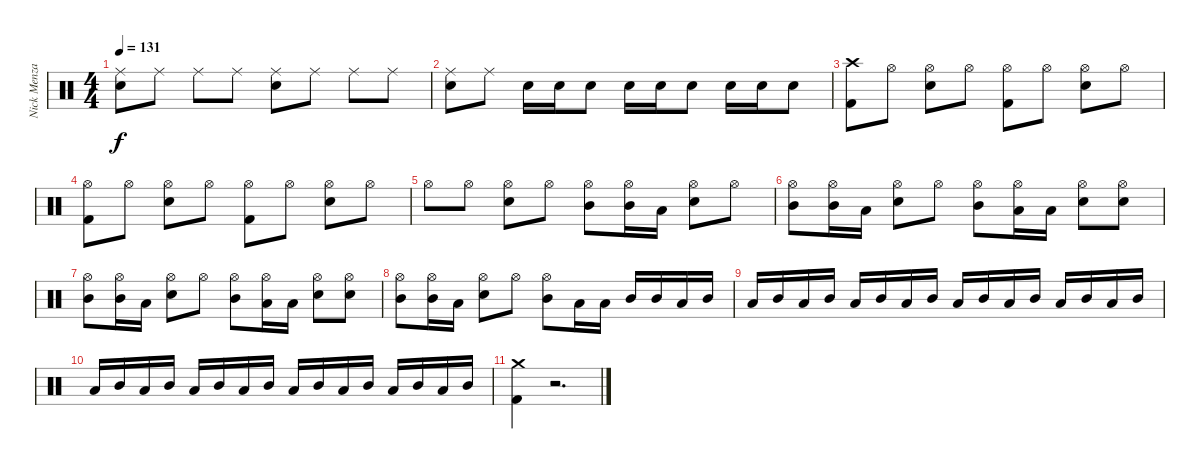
\track ("Nick Menza" "Nick Menza") {instrument percussion}
\staff {score}
\articulation defaults
\ts (4 4)
\tempo 131
\clef neutral
\ks c
("Ride (middle)" "Snare (hit) 2").8{dy f} "Ride (middle)".8 "Ride (middle)".8 "Ride (middle)".8 ("Ride (middle)" "Snare (hit) 2").8 "Ride (middle)".8 "Ride (middle)".8 "Ride (middle)".8 |
("Ride (middle)" "Snare (hit) 2").8 "Ride (middle)".8 "Snare (hit) 2".16 "Snare (hit) 2".16 "Snare (hit) 2".8 "Snare (hit) 2".16 "Snare (hit) 2".16 "Snare (hit) 2".8 "Snare (hit) 2".16 "Snare (hit) 2".16 "Snare (hit) 2".8 |
("Crash high (hit)" "Kick (hit) 2").8 "Hi-Hat (open)".8 ("Hi-Hat (open)" "Snare (hit) 2").8 "Hi-Hat (open)".8 ("Hi-Hat (open)" "Kick (hit) 2").8 "Hi-Hat (open)".8 ("Hi-Hat (open)" "Snare (hit) 2").8 "Hi-Hat (open)".8 |
("Hi-Hat (open)" "Kick (hit) 2").8 "Hi-Hat (open)".8 ("Hi-Hat (open)" "Snare (hit) 2").8 "Hi-Hat (open)".8 ("Hi-Hat (open)" "Kick (hit) 2").8 "Hi-Hat (open)".8 ("Hi-Hat (open)" "Snare (hit) 2").8 "Hi-Hat (open)".8 |
"Hi-Hat (open)".8 "Hi-Hat (open)".8 ("Hi-Hat (open)" "Snare (hit) 2").8 "Hi-Hat (open)".8 ("Hi-Hat (open)" "Mid Tom (hit)").8 ("Hi-Hat (open)" "Mid Tom (hit)").16 "Low Tom (hit)".16 ("Hi-Hat (open)" "Snare (hit) 2").8 "Hi-Hat (open)".8 |
("Hi-Hat (open)" "Mid Tom (hit)").8 ("Hi-Hat (open)" "Mid Tom (hit)").16 "Low Tom (hit)".16 ("Hi-Hat (open)" "Snare (hit) 2").8 "Hi-Hat (open)".8 ("Hi-Hat (open)" "Mid Tom (hit)").8 ("Hi-Hat (open)" "Low Tom (hit)").16 "Low Tom (hit)".16 ("Hi-Hat (open)" "Snare (hit) 2").8 ("Hi-Hat (open)" "Snare (hit) 2").8 |
("Hi-Hat (open)" "Mid Tom (hit)").8 ("Hi-Hat (open)" "Mid Tom (hit)").16 "Low Tom (hit)".16 ("Hi-Hat (open)" "Snare (hit) 2").8 "Hi-Hat (open)".8 ("Hi-Hat (open)" "Mid Tom (hit)").8 ("Hi-Hat (open)" "Low Tom (hit)").16 "Low Tom (hit)".16 ("Hi-Hat (open)" "Snare (hit) 2").8 ("Hi-Hat (open)" "Snare (hit) 2").8 |
("Hi-Hat (open)" "Mid Tom (hit)").8 ("Hi-Hat (open)" "Mid Tom (hit)").16 "Low Tom (hit)".16 ("Hi-Hat (open)" "Snare (hit) 2").8 "Hi-Hat (open)".8 ("Hi-Hat (open)" "Mid Tom (hit)").8 "Low Tom (hit)".16 "Low Tom (hit)".16 "Mid Tom (hit)".16 "Mid Tom (hit)".16 "Low Tom (hit)".16 "Mid Tom (hit)".16 |
"Low Tom (hit)".16 "Mid Tom (hit)".16 "Low Tom (hit)".16 "Mid Tom (hit)".16 "Low Tom (hit)".16 "Mid Tom (hit)".16 "Low Tom (hit)".16 "Mid Tom (hit)".16 "Low Tom (hit)".16 "Mid Tom (hit)".16 "Low Tom (hit)".16 "Mid Tom (hit)".16 "Low Tom (hit)".16 "Mid Tom (hit)".16 "Low Tom (hit)".16 "Mid Tom (hit)".16 |
"Low Tom (hit)".16 "Mid Tom (hit)".16 "Low Tom (hit)".16 "Mid Tom (hit)".16 "Low Tom (hit)".16 "Mid Tom (hit)".16 "Low Tom (hit)".16 "Mid Tom (hit)".16 "Low Tom (hit)".16 "Mid Tom (hit)".16 "Low Tom (hit)".16 "Mid Tom (hit)".16 "Low Tom (hit)".16 "Mid Tom (hit)".16 "Low Tom (hit)".16 "Mid Tom (hit)".16 |
("Crash medium (hit)" "Kick (hit) 2").4 r.2{d}
